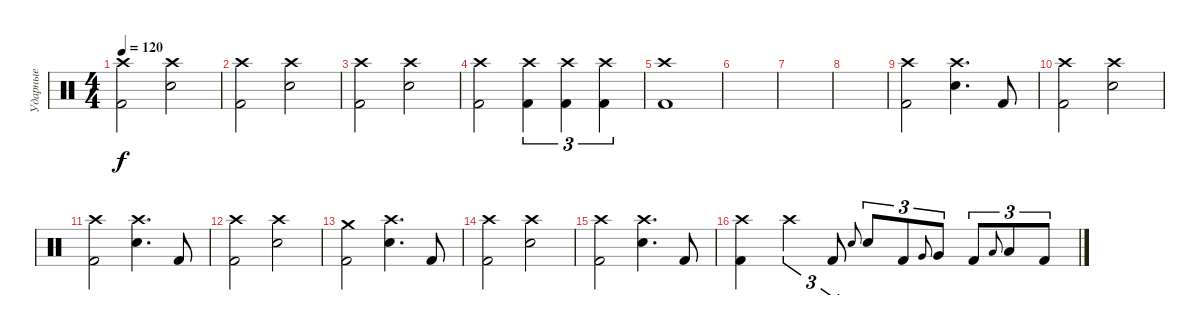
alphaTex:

\track ("Ударные" "Ударные") {instrument percussion}
\staff {score}
\articulation defaults
\ts (4 4)
\tempo 120
\clef neutral
\ks c
("Crash high (hit)" "Kick (hit) 2").2{dy f} ("Crash high (hit)" "Snare (hit) 2").2 |
("Crash high (hit)" "Kick (hit) 2").2 ("Crash high (hit)" "Snare (hit) 2").2 |
("Crash high (hit)" "Kick (hit) 2").2 ("Crash high (hit)" "Snare (hit) 2").2 |
("Crash high (hit)" "Kick (hit) 2").2 ("Crash high (hit)" "Kick (hit) 2").4{tu (3 2)} ("Crash high (hit)" "Kick (hit) 2").4{tu (3 2)} ("Crash high (hit)" "Kick (hit) 2").4{tu (3 2)} |
("Crash high (hit)" "Kick (hit) 2").1 |
|
|
|
("Crash high (hit)" "Kick (hit) 2").2 ("Crash high (hit)" "Snare (hit) 2").4{d} "Kick (hit) 2".8 |
("Crash high (hit)" "Kick (hit) 2").2 ("Crash high (hit)" "Snare (hit) 2").2 |
("Crash high (hit)" "Kick (hit) 2").2 ("Crash high (hit)" "Snare (hit) 2").4{d} "Kick (hit) 2".8 |
("Crash high (hit)" "Kick (hit) 2").2 ("Crash high (hit)" "Snare (hit) 2").2 |
("Crash medium (hit)" "Kick (hit) 2").2 ("Crash high (hit)" "Snare (hit) 2").4{d} "Kick (hit) 2".8 |
("Crash high (hit)" "Kick (hit) 2").2 ("Crash high (hit)" "Snare (hit) 2").2 |
("Crash high (hit)" "Kick (hit) 2").2 ("Crash high (hit)" "Snare (hit) 2").4{d} "Kick (hit) 2".8 |
("Crash high (hit)" "Kick (hit) 2").4 "Crash high (hit)".4{tu (3 2)} "Kick (hit) 2".8{tu (3 2)} "Snare (hit) 2".8{gr onbeat} "Snare (hit) 2".8{tu (3 2)} "Kick (hit) 2".8{tu (3 2)} "Very Low Tom (hit)".8{gr onbeat} "Very Low Tom (hit)".8{tu (3 2)} "Kick (hit) 2".8{tu (3 2)} "Low Floor Tom (hit)".8{gr onbeat} "Low Floor Tom (hit)".8{tu (3 2)} "Kick (hit) 2".8{tu (3 2)}
